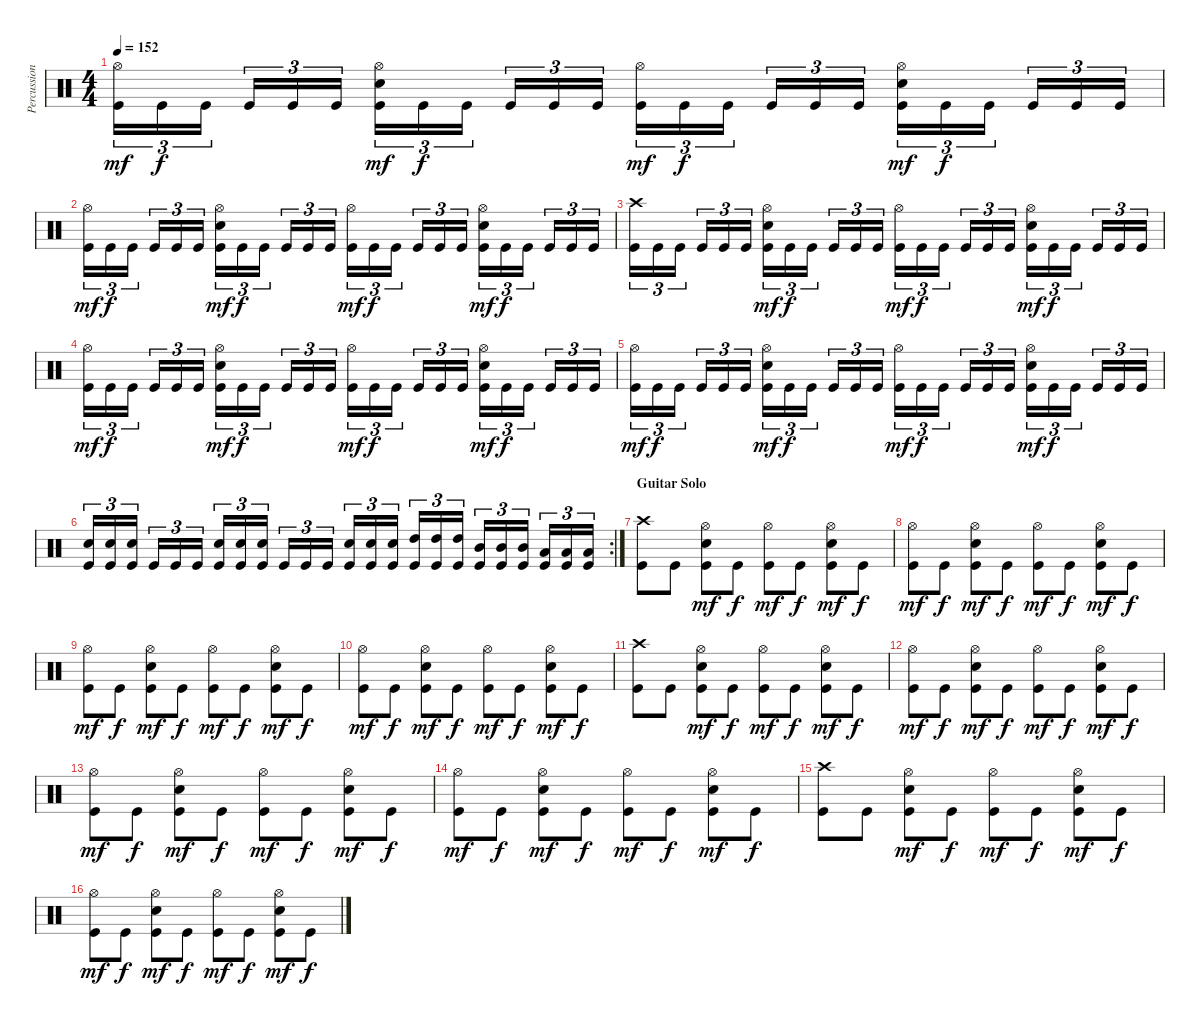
\track ("Percussion" "Percussion") {instrument percussion}
\staff {score}
\articulation defaults
\ts (4 4)
\tempo 152
\clef neutral
\ks c
("Hi-Hat (open)" "Kick (hit)").16{tu (3 2) dy mf} "Kick (hit)".16{tu (3 2) dy f} "Kick (hit)".16{tu (3 2)} "Kick (hit)".16{tu (3 2)} "Kick (hit)".16{tu (3 2)} "Kick (hit)".16{tu (3 2)} ("Hi-Hat (open)" "Snare (hit) 2" "Kick (hit)").16{tu (3 2) dy mf} "Kick (hit)".16{tu (3 2) dy f} "Kick (hit)".16{tu (3 2)} "Kick (hit)".16{tu (3 2)} "Kick (hit)".16{tu (3 2)} "Kick (hit)".16{tu (3 2)} ("Hi-Hat (open)" "Kick (hit)").16{tu (3 2) dy mf} "Kick (hit)".16{tu (3 2) dy f} "Kick (hit)".16{tu (3 2)} "Kick (hit)".16{tu (3 2)} "Kick (hit)".16{tu (3 2)} "Kick (hit)".16{tu (3 2)} ("Hi-Hat (open)" "Snare (hit) 2" "Kick (hit)").16{tu (3 2) dy mf} "Kick (hit)".16{tu (3 2) dy f} "Kick (hit)".16{tu (3 2)} "Kick (hit)".16{tu (3 2)} "Kick (hit)".16{tu (3 2)} "Kick (hit)".16{tu (3 2)} |
("Hi-Hat (open)" "Kick (hit)").16{tu (3 2) dy mf} "Kick (hit)".16{tu (3 2) dy f} "Kick (hit)".16{tu (3 2)} "Kick (hit)".16{tu (3 2)} "Kick (hit)".16{tu (3 2)} "Kick (hit)".16{tu (3 2)} ("Hi-Hat (open)" "Snare (hit) 2" "Kick (hit)").16{tu (3 2) dy mf} "Kick (hit)".16{tu (3 2) dy f} "Kick (hit)".16{tu (3 2)} "Kick (hit)".16{tu (3 2)} "Kick (hit)".16{tu (3 2)} "Kick (hit)".16{tu (3 2)} ("Hi-Hat (open)" "Kick (hit)").16{tu (3 2) dy mf} "Kick (hit)".16{tu (3 2) dy f} "Kick (hit)".16{tu (3 2)} "Kick (hit)".16{tu (3 2)} "Kick (hit)".16{tu (3 2)} "Kick (hit)".16{tu (3 2)} ("Hi-Hat (open)" "Snare (hit) 2" "Kick (hit)").16{tu (3 2) dy mf} "Kick (hit)".16{tu (3 2) dy f} "Kick (hit)".16{tu (3 2)} "Kick (hit)".16{tu (3 2)} "Kick (hit)".16{tu (3 2)} "Kick (hit)".16{tu (3 2)} |
("Crash high (hit)" "Kick (hit)").16{tu (3 2)} "Kick (hit)".16{tu (3 2)} "Kick (hit)".16{tu (3 2)} "Kick (hit)".16{tu (3 2)} "Kick (hit)".16{tu (3 2)} "Kick (hit)".16{tu (3 2)} ("Hi-Hat (open)" "Snare (hit) 2" "Kick (hit)").16{tu (3 2) dy mf} "Kick (hit)".16{tu (3 2) dy f} "Kick (hit)".16{tu (3 2)} "Kick (hit)".16{tu (3 2)} "Kick (hit)".16{tu (3 2)} "Kick (hit)".16{tu (3 2)} ("Hi-Hat (open)" "Kick (hit)").16{tu (3 2) dy mf} "Kick (hit)".16{tu (3 2) dy f} "Kick (hit)".16{tu (3 2)} "Kick (hit)".16{tu (3 2)} "Kick (hit)".16{tu (3 2)} "Kick (hit)".16{tu (3 2)} ("Hi-Hat (open)" "Snare (hit) 2" "Kick (hit)").16{tu (3 2) dy mf} "Kick (hit)".16{tu (3 2) dy f} "Kick (hit)".16{tu (3 2)} "Kick (hit)".16{tu (3 2)} "Kick (hit)".16{tu (3 2)} "Kick (hit)".16{tu (3 2)} |
("Hi-Hat (open)" "Kick (hit)").16{tu (3 2) dy mf} "Kick (hit)".16{tu (3 2) dy f} "Kick (hit)".16{tu (3 2)} "Kick (hit)".16{tu (3 2)} "Kick (hit)".16{tu (3 2)} "Kick (hit)".16{tu (3 2)} ("Hi-Hat (open)" "Snare (hit) 2" "Kick (hit)").16{tu (3 2) dy mf} "Kick (hit)".16{tu (3 2) dy f} "Kick (hit)".16{tu (3 2)} "Kick (hit)".16{tu (3 2)} "Kick (hit)".16{tu (3 2)} "Kick (hit)".16{tu (3 2)} ("Hi-Hat (open)" "Kick (hit)").16{tu (3 2) dy mf} "Kick (hit)".16{tu (3 2) dy f} "Kick (hit)".16{tu (3 2)} "Kick (hit)".16{tu (3 2)} "Kick (hit)".16{tu (3 2)} "Kick (hit)".16{tu (3 2)} ("Hi-Hat (open)" "Snare (hit) 2" "Kick (hit)").16{tu (3 2) dy mf} "Kick (hit)".16{tu (3 2) dy f} "Kick (hit)".16{tu (3 2)} "Kick (hit)".16{tu (3 2)} "Kick (hit)".16{tu (3 2)} "Kick (hit)".16{tu (3 2)} |
("Hi-Hat (open)" "Kick (hit)").16{tu (3 2) dy mf} "Kick (hit)".16{tu (3 2) dy f} "Kick (hit)".16{tu (3 2)} "Kick (hit)".16{tu (3 2)} "Kick (hit)".16{tu (3 2)} "Kick (hit)".16{tu (3 2)} ("Hi-Hat (open)" "Snare (hit) 2" "Kick (hit)").16{tu (3 2) dy mf} "Kick (hit)".16{tu (3 2) dy f} "Kick (hit)".16{tu (3 2)} "Kick (hit)".16{tu (3 2)} "Kick (hit)".16{tu (3 2)} "Kick (hit)".16{tu (3 2)} ("Hi-Hat (open)" "Kick (hit)").16{tu (3 2) dy mf} "Kick (hit)".16{tu (3 2) dy f} "Kick (hit)".16{tu (3 2)} "Kick (hit)".16{tu (3 2)} "Kick (hit)".16{tu (3 2)} "Kick (hit)".16{tu (3 2)} ("Hi-Hat (open)" "Snare (hit) 2" "Kick (hit)").16{tu (3 2) dy mf} "Kick (hit)".16{tu (3 2) dy f} "Kick (hit)".16{tu (3 2)} "Kick (hit)".16{tu (3 2)} "Kick (hit)".16{tu (3 2)} "Kick (hit)".16{tu (3 2)} |
\rc 2
("Snare (hit) 2" "Kick (hit)").16{tu (3 2)} ("Snare (hit) 2" "Kick (hit)").16{tu (3 2)} ("Snare (hit) 2" "Kick (hit)").16{tu (3 2)} "Kick (hit)".16{tu (3 2)} "Kick (hit)".16{tu (3 2)} "Kick (hit)".16{tu (3 2)} ("Snare (hit) 2" "Kick (hit)").16{tu (3 2)} ("Snare (hit) 2" "Kick (hit)").16{tu (3 2)} ("Snare (hit) 2" "Kick (hit)").16{tu (3 2)} "Kick (hit)".16{tu (3 2)} "Kick (hit)".16{tu (3 2)} "Kick (hit)".16{tu (3 2)} ("Snare (hit) 2" "Kick (hit)").16{tu (3 2)} ("Snare (hit) 2" "Kick (hit)").16{tu (3 2)} ("Snare (hit) 2" "Kick (hit)").16{tu (3 2)} ("High Tom (hit)" "Kick (hit)").16{tu (3 2)} ("High Tom (hit)" "Kick (hit)").16{tu (3 2)} ("High Tom (hit)" "Kick (hit)").16{tu (3 2)} ("Mid Tom (hit)" "Kick (hit)").16{tu (3 2)} ("Mid Tom (hit)" "Kick (hit)").16{tu (3 2)} ("Mid Tom (hit)" "Kick (hit)").16{tu (3 2)} ("Low Tom (hit)" "Kick (hit)").16{tu (3 2)} ("Low Tom (hit)" "Kick (hit)").16{tu (3 2)} ("Low Tom (hit)" "Kick (hit)").16{tu (3 2)} |
\section ("" "Guitar Solo")
("Crash high (hit)" "Kick (hit)").8 "Kick (hit)".8 ("Hi-Hat (open)" "Snare (hit) 2" "Kick (hit)").8{dy mf} "Kick (hit)".8{dy f} ("Hi-Hat (open)" "Kick (hit)").8{dy mf} "Kick (hit)".8{dy f} ("Hi-Hat (open)" "Snare (hit) 2" "Kick (hit)").8{dy mf} "Kick (hit)".8{dy f} |
("Hi-Hat (open)" "Kick (hit)").8{dy mf} "Kick (hit)".8{dy f} ("Hi-Hat (open)" "Snare (hit) 2" "Kick (hit)").8{dy mf} "Kick (hit)".8{dy f} ("Hi-Hat (open)" "Kick (hit)").8{dy mf} "Kick (hit)".8{dy f} ("Hi-Hat (open)" "Snare (hit) 2" "Kick (hit)").8{dy mf} "Kick (hit)".8{dy f} |
("Hi-Hat (open)" "Kick (hit)").8{dy mf} "Kick (hit)".8{dy f} ("Hi-Hat (open)" "Snare (hit) 2" "Kick (hit)").8{dy mf} "Kick (hit)".8{dy f} ("Hi-Hat (open)" "Kick (hit)").8{dy mf} "Kick (hit)".8{dy f} ("Hi-Hat (open)" "Snare (hit) 2" "Kick (hit)").8{dy mf} "Kick (hit)".8{dy f} |
("Hi-Hat (open)" "Kick (hit)").8{dy mf} "Kick (hit)".8{dy f} ("Hi-Hat (open)" "Snare (hit) 2" "Kick (hit)").8{dy mf} "Kick (hit)".8{dy f} ("Hi-Hat (open)" "Kick (hit)").8{dy mf} "Kick (hit)".8{dy f} ("Hi-Hat (open)" "Snare (hit) 2" "Kick (hit)").8{dy mf} "Kick (hit)".8{dy f} |
("Crash high (hit)" "Kick (hit)").8 "Kick (hit)".8 ("Hi-Hat (open)" "Snare (hit) 2" "Kick (hit)").8{dy mf} "Kick (hit)".8{dy f} ("Hi-Hat (open)" "Kick (hit)").8{dy mf} "Kick (hit)".8{dy f} ("Hi-Hat (open)" "Snare (hit) 2" "Kick (hit)").8{dy mf} "Kick (hit)".8{dy f} |
("Hi-Hat (open)" "Kick (hit)").8{dy mf} "Kick (hit)".8{dy f} ("Hi-Hat (open)" "Snare (hit) 2" "Kick (hit)").8{dy mf} "Kick (hit)".8{dy f} ("Hi-Hat (open)" "Kick (hit)").8{dy mf} "Kick (hit)".8{dy f} ("Hi-Hat (open)" "Snare (hit) 2" "Kick (hit)").8{dy mf} "Kick (hit)".8{dy f} |
("Hi-Hat (open)" "Kick (hit)").8{dy mf} "Kick (hit)".8{dy f} ("Hi-Hat (open)" "Snare (hit) 2" "Kick (hit)").8{dy mf} "Kick (hit)".8{dy f} ("Hi-Hat (open)" "Kick (hit)").8{dy mf} "Kick (hit)".8{dy f} ("Hi-Hat (open)" "Snare (hit) 2" "Kick (hit)").8{dy mf} "Kick (hit)".8{dy f} |
("Hi-Hat (open)" "Kick (hit)").8{dy mf} "Kick (hit)".8{dy f} ("Hi-Hat (open)" "Snare (hit) 2" "Kick (hit)").8{dy mf} "Kick (hit)".8{dy f} ("Hi-Hat (open)" "Kick (hit)").8{dy mf} "Kick (hit)".8{dy f} ("Hi-Hat (open)" "Snare (hit) 2" "Kick (hit)").8{dy mf} "Kick (hit)".8{dy f} |
("Crash high (hit)" "Kick (hit)").8 "Kick (hit)".8 ("Hi-Hat (open)" "Snare (hit) 2" "Kick (hit)").8{dy mf} "Kick (hit)".8{dy f} ("Hi-Hat (open)" "Kick (hit)").8{dy mf} "Kick (hit)".8{dy f} ("Hi-Hat (open)" "Snare (hit) 2" "Kick (hit)").8{dy mf} "Kick (hit)".8{dy f} |
("Hi-Hat (open)" "Kick (hit)").8{dy mf} "Kick (hit)".8{dy f} ("Hi-Hat (open)" "Snare (hit) 2" "Kick (hit)").8{dy mf} "Kick (hit)".8{dy f} ("Hi-Hat (open)" "Kick (hit)").8{dy mf} "Kick (hit)".8{dy f} ("Hi-Hat (open)" "Snare (hit) 2" "Kick (hit)").8{dy mf} "Kick (hit)".8{dy f}
